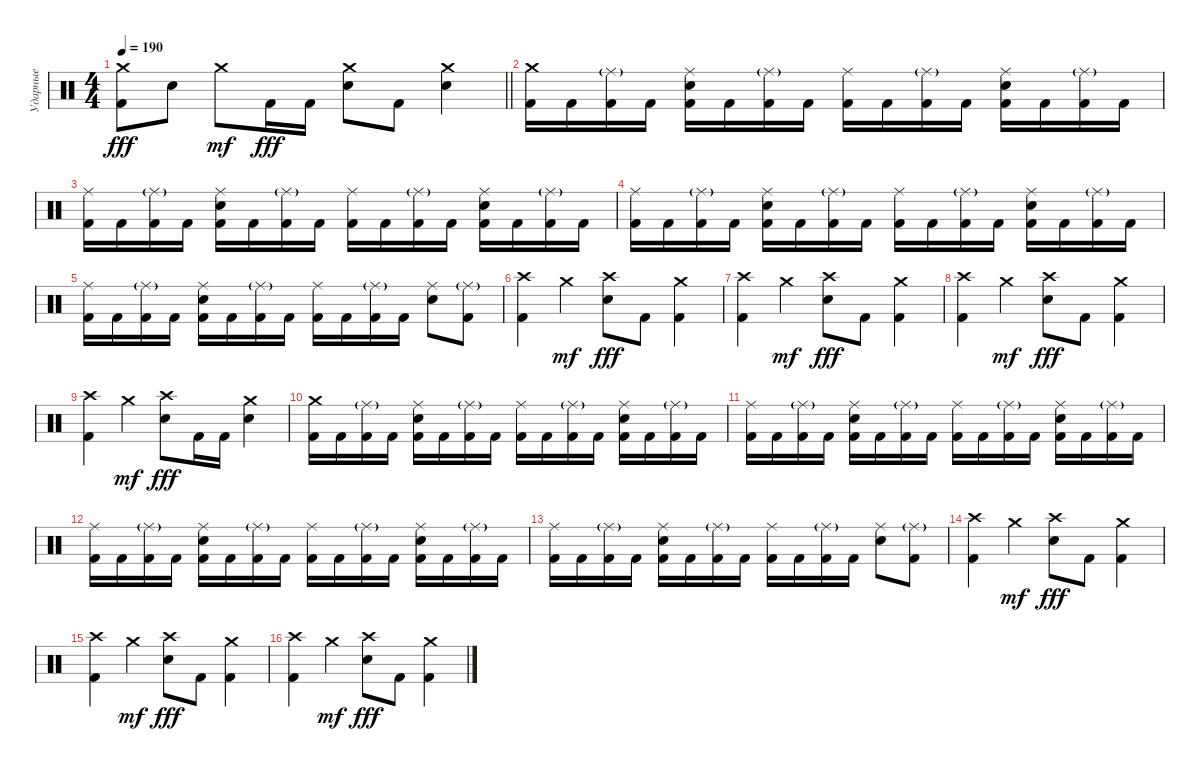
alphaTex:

\track ("Ударные" "Ударные") {instrument percussion}
\staff {score}
\articulation defaults
\ts (4 4)
\tempo 190
\clef neutral
\barLineRight lightlight
\ks c
("Crash medium (hit)" "Kick (hit) 2").8{dy fff} "Electric Snare (hit)".8 "Crash medium (hit)".8{dy mf} "Kick (hit) 2".16{dy fff} "Kick (hit) 2".16 ("Crash medium (hit)" "Electric Snare (hit)").8 "Kick (hit) 2".8 ("Crash medium (hit)" "Electric Snare (hit)").4 |
\section ("" "")
("Crash medium (hit)" "Kick (hit) 2").16 "Kick (hit) 2".16 ("Ride (middle)"{g} "Kick (hit) 2").16 "Kick (hit) 2".16 ("Ride (middle)" "Electric Snare (hit)" "Kick (hit) 2").16 "Kick (hit) 2".16 ("Ride (middle)"{g} "Kick (hit) 2").16 "Kick (hit) 2".16 ("Ride (middle)" "Kick (hit) 2").16 "Kick (hit) 2".16 ("Ride (middle)"{g} "Kick (hit) 2").16 "Kick (hit) 2".16 ("Ride (middle)" "Electric Snare (hit)" "Kick (hit) 2").16 "Kick (hit) 2".16 ("Ride (middle)"{g} "Kick (hit) 2").16 "Kick (hit) 2".16 |
("Ride (middle)" "Kick (hit) 2").16 "Kick (hit) 2".16 ("Ride (middle)"{g} "Kick (hit) 2").16 "Kick (hit) 2".16 ("Ride (middle)" "Electric Snare (hit)" "Kick (hit) 2").16 "Kick (hit) 2".16 ("Ride (middle)"{g} "Kick (hit) 2").16 "Kick (hit) 2".16 ("Ride (middle)" "Kick (hit) 2").16 "Kick (hit) 2".16 ("Ride (middle)"{g} "Kick (hit) 2").16 "Kick (hit) 2".16 ("Ride (middle)" "Electric Snare (hit)" "Kick (hit) 2").16 "Kick (hit) 2".16 ("Ride (middle)"{g} "Kick (hit) 2").16 "Kick (hit) 2".16 |
("Ride (middle)" "Kick (hit) 2").16 "Kick (hit) 2".16 ("Ride (middle)"{g} "Kick (hit) 2").16 "Kick (hit) 2".16 ("Ride (middle)" "Electric Snare (hit)" "Kick (hit) 2").16 "Kick (hit) 2".16 ("Ride (middle)"{g} "Kick (hit) 2").16 "Kick (hit) 2".16 ("Ride (middle)" "Kick (hit) 2").16 "Kick (hit) 2".16 ("Ride (middle)"{g} "Kick (hit) 2").16 "Kick (hit) 2".16 ("Ride (middle)" "Electric Snare (hit)" "Kick (hit) 2").16 "Kick (hit) 2".16 ("Ride (middle)"{g} "Kick (hit) 2").16 "Kick (hit) 2".16 |
("Ride (middle)" "Kick (hit) 2").16 "Kick (hit) 2".16 ("Ride (middle)"{g} "Kick (hit) 2").16 "Kick (hit) 2".16 ("Ride (middle)" "Electric Snare (hit)" "Kick (hit) 2").16 "Kick (hit) 2".16 ("Ride (middle)"{g} "Kick (hit) 2").16 "Kick (hit) 2".16 ("Ride (middle)" "Kick (hit) 2").16 "Kick (hit) 2".16 ("Ride (middle)"{g} "Kick (hit) 2").16 "Kick (hit) 2".16 ("Ride (middle)" "Electric Snare (hit)").8 ("Ride (middle)"{g} "Kick (hit) 2").8 |
("Crash high (hit)" "Kick (hit) 2").4 "Crash medium (hit)".4{dy mf} ("Crash high (hit)" "Electric Snare (hit)").8{dy fff} "Kick (hit) 2".8 ("Crash medium (hit)" "Kick (hit) 2").4 |
("Crash high (hit)" "Kick (hit) 2").4 "Crash medium (hit)".4{dy mf} ("Crash high (hit)" "Electric Snare (hit)").8{dy fff} "Kick (hit) 2".8 ("Crash medium (hit)" "Kick (hit) 2").4 |
("Crash high (hit)" "Kick (hit) 2").4 "Crash medium (hit)".4{dy mf} ("Crash high (hit)" "Electric Snare (hit)").8{dy fff} "Kick (hit) 2".8 ("Crash medium (hit)" "Kick (hit) 2").4 |
("Crash high (hit)" "Kick (hit) 2").4 "Crash medium (hit)".4{dy mf} ("Crash high (hit)" "Electric Snare (hit)").8{dy fff} "Kick (hit) 2".16 "Kick (hit) 2".16 ("Crash medium (hit)" "Electric Snare (hit)").4 |
("Crash medium (hit)" "Kick (hit) 2").16 "Kick (hit) 2".16 ("Ride (middle)"{g} "Kick (hit) 2").16 "Kick (hit) 2".16 ("Ride (middle)" "Electric Snare (hit)" "Kick (hit) 2").16 "Kick (hit) 2".16 ("Ride (middle)"{g} "Kick (hit) 2").16 "Kick (hit) 2".16 ("Ride (middle)" "Kick (hit) 2").16 "Kick (hit) 2".16 ("Ride (middle)"{g} "Kick (hit) 2").16 "Kick (hit) 2".16 ("Ride (middle)" "Electric Snare (hit)" "Kick (hit) 2").16 "Kick (hit) 2".16 ("Ride (middle)"{g} "Kick (hit) 2").16 "Kick (hit) 2".16 |
("Ride (middle)" "Kick (hit) 2").16 "Kick (hit) 2".16 ("Ride (middle)"{g} "Kick (hit) 2").16 "Kick (hit) 2".16 ("Ride (middle)" "Electric Snare (hit)" "Kick (hit) 2").16 "Kick (hit) 2".16 ("Ride (middle)"{g} "Kick (hit) 2").16 "Kick (hit) 2".16 ("Ride (middle)" "Kick (hit) 2").16 "Kick (hit) 2".16 ("Ride (middle)"{g} "Kick (hit) 2").16 "Kick (hit) 2".16 ("Ride (middle)" "Electric Snare (hit)" "Kick (hit) 2").16 "Kick (hit) 2".16 ("Ride (middle)"{g} "Kick (hit) 2").16 "Kick (hit) 2".16 |
("Ride (middle)" "Kick (hit) 2").16 "Kick (hit) 2".16 ("Ride (middle)"{g} "Kick (hit) 2").16 "Kick (hit) 2".16 ("Ride (middle)" "Electric Snare (hit)" "Kick (hit) 2").16 "Kick (hit) 2".16 ("Ride (middle)"{g} "Kick (hit) 2").16 "Kick (hit) 2".16 ("Ride (middle)" "Kick (hit) 2").16 "Kick (hit) 2".16 ("Ride (middle)"{g} "Kick (hit) 2").16 "Kick (hit) 2".16 ("Ride (middle)" "Electric Snare (hit)" "Kick (hit) 2").16 "Kick (hit) 2".16 ("Ride (middle)"{g} "Kick (hit) 2").16 "Kick (hit) 2".16 |
("Ride (middle)" "Kick (hit) 2").16 "Kick (hit) 2".16 ("Ride (middle)"{g} "Kick (hit) 2").16 "Kick (hit) 2".16 ("Ride (middle)" "Electric Snare (hit)" "Kick (hit) 2").16 "Kick (hit) 2".16 ("Ride (middle)"{g} "Kick (hit) 2").16 "Kick (hit) 2".16 ("Ride (middle)" "Kick (hit) 2").16 "Kick (hit) 2".16 ("Ride (middle)"{g} "Kick (hit) 2").16 "Kick (hit) 2".16 ("Ride (middle)" "Electric Snare (hit)").8 ("Ride (middle)"{g} "Kick (hit) 2").8 |
("Crash high (hit)" "Kick (hit) 2").4 "Crash medium (hit)".4{dy mf} ("Crash high (hit)" "Electric Snare (hit)").8{dy fff} "Kick (hit) 2".8 ("Crash medium (hit)" "Kick (hit) 2").4 |
("Crash high (hit)" "Kick (hit) 2").4 "Crash medium (hit)".4{dy mf} ("Crash high (hit)" "Electric Snare (hit)").8{dy fff} "Kick (hit) 2".8 ("Crash medium (hit)" "Kick (hit) 2").4 |
("Crash high (hit)" "Kick (hit) 2").4 "Crash medium (hit)".4{dy mf} ("Crash high (hit)" "Electric Snare (hit)").8{dy fff} "Kick (hit) 2".8 ("Crash medium (hit)" "Kick (hit) 2").4
